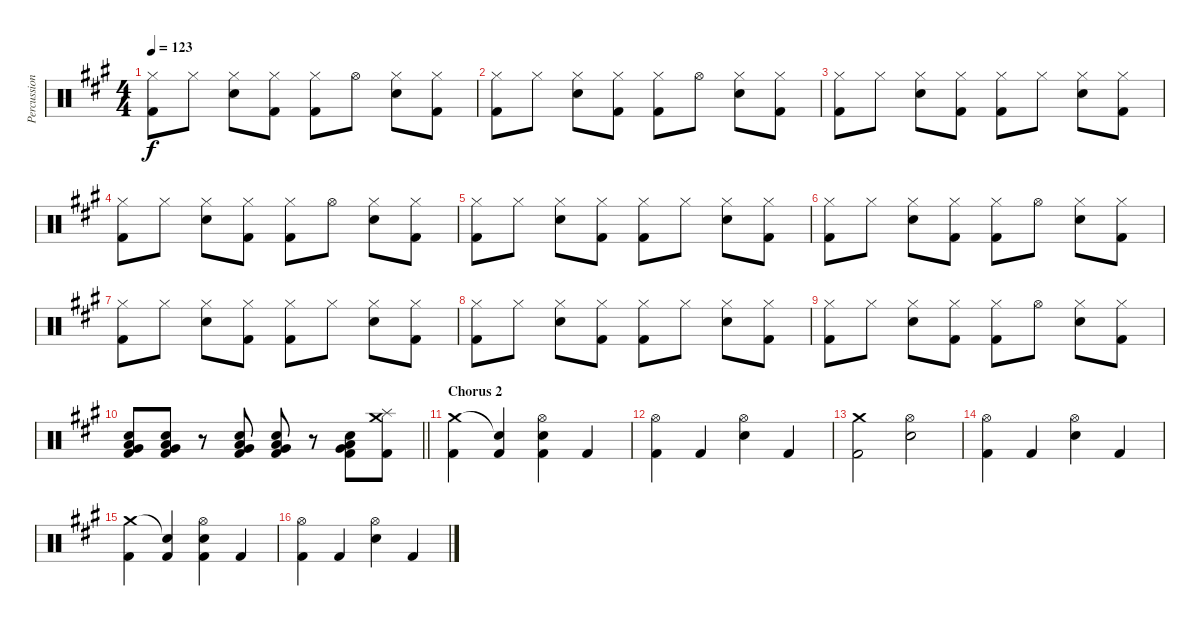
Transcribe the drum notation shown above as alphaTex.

\track ("Percussion" "Percussion") {instrument percussion}
\staff {score}
\articulation defaults
\ts (4 4)
\tempo 123
\clef neutral
\ks a
("Hi-Hat (closed)" "Kick (hit) 2").8{dy f} "Hi-Hat (closed)".8 ("Hi-Hat (closed)" "Electric Snare (hit)").8 ("Hi-Hat (closed)" "Kick (hit) 2").8 ("Hi-Hat (closed)" "Kick (hit) 2").8 "Hi-Hat (open)".8 ("Hi-Hat (closed)" "Electric Snare (hit)").8 ("Hi-Hat (closed)" "Kick (hit) 2").8 |
("Hi-Hat (closed)" "Kick (hit) 2").8 "Hi-Hat (closed)".8 ("Hi-Hat (closed)" "Electric Snare (hit)").8 ("Hi-Hat (closed)" "Kick (hit) 2").8 ("Hi-Hat (closed)" "Kick (hit) 2").8 "Hi-Hat (open)".8 ("Hi-Hat (closed)" "Electric Snare (hit)").8 ("Hi-Hat (closed)" "Kick (hit) 2").8 |
("Hi-Hat (closed)" "Kick (hit) 2").8 "Hi-Hat (closed)".8 ("Hi-Hat (closed)" "Electric Snare (hit)").8 ("Hi-Hat (closed)" "Kick (hit) 2").8 ("Hi-Hat (closed)" "Kick (hit) 2").8 "Hi-Hat (closed)".8 ("Hi-Hat (closed)" "Electric Snare (hit)").8 ("Hi-Hat (closed)" "Kick (hit) 2").8 |
("Hi-Hat (closed)" "Kick (hit) 2").8 "Hi-Hat (closed)".8 ("Hi-Hat (closed)" "Electric Snare (hit)").8 ("Hi-Hat (closed)" "Kick (hit) 2").8 ("Hi-Hat (closed)" "Kick (hit) 2").8 "Hi-Hat (open)".8 ("Hi-Hat (closed)" "Electric Snare (hit)").8 ("Hi-Hat (closed)" "Kick (hit) 2").8 |
("Hi-Hat (closed)" "Kick (hit) 2").8 "Hi-Hat (closed)".8 ("Hi-Hat (closed)" "Electric Snare (hit)").8 ("Hi-Hat (closed)" "Kick (hit) 2").8 ("Hi-Hat (closed)" "Kick (hit) 2").8 "Hi-Hat (closed)".8 ("Hi-Hat (closed)" "Electric Snare (hit)").8 ("Hi-Hat (closed)" "Kick (hit) 2").8 |
("Hi-Hat (closed)" "Kick (hit) 2").8 "Hi-Hat (closed)".8 ("Hi-Hat (closed)" "Electric Snare (hit)").8 ("Hi-Hat (closed)" "Kick (hit) 2").8 ("Hi-Hat (closed)" "Kick (hit) 2").8 "Hi-Hat (open)".8 ("Hi-Hat (closed)" "Electric Snare (hit)").8 ("Hi-Hat (closed)" "Kick (hit) 2").8 |
("Hi-Hat (closed)" "Kick (hit) 2").8 "Hi-Hat (closed)".8 ("Hi-Hat (closed)" "Electric Snare (hit)").8 ("Hi-Hat (closed)" "Kick (hit) 2").8 ("Hi-Hat (closed)" "Kick (hit) 2").8 "Hi-Hat (closed)".8 ("Hi-Hat (closed)" "Electric Snare (hit)").8 ("Hi-Hat (closed)" "Kick (hit) 2").8 |
("Hi-Hat (closed)" "Kick (hit) 2").8 "Hi-Hat (closed)".8 ("Hi-Hat (closed)" "Electric Snare (hit)").8 ("Hi-Hat (closed)" "Kick (hit) 2").8 ("Hi-Hat (closed)" "Kick (hit) 2").8 "Hi-Hat (closed)".8 ("Hi-Hat (closed)" "Electric Snare (hit)").8 ("Hi-Hat (closed)" "Kick (hit) 2").8 |
("Hi-Hat (closed)" "Kick (hit) 2").8 "Hi-Hat (closed)".8 ("Hi-Hat (closed)" "Electric Snare (hit)").8 ("Hi-Hat (closed)" "Kick (hit) 2").8 ("Hi-Hat (closed)" "Kick (hit) 2").8 "Hi-Hat (open)".8 ("Hi-Hat (closed)" "Electric Snare (hit)").8 ("Hi-Hat (closed)" "Kick (hit) 2").8 |
\barLineRight lightlight
("Electric Snare (hit)" "Low Floor Tom (hit)" "Very Low Tom (hit)" "Kick (hit) 2").8 ("Electric Snare (hit)" "Low Floor Tom (hit)" "Very Low Tom (hit)" "Kick (hit) 2").8 r.8 ("Electric Snare (hit)" "Low Floor Tom (hit)" "Very Low Tom (hit)" "Kick (hit) 2").8 ("Electric Snare (hit)" "Low Floor Tom (hit)" "Very Low Tom (hit)" "Kick (hit) 2").8 r.8 ("Electric Snare (hit)" "Low Floor Tom (hit)" "Very Low Tom (hit)" "Kick (hit) 2").8 ("Splash (hit)" "Crash medium (hit)" "Kick (hit) 2").8 |
\section ("" "Chorus 2")
("Crash medium (hit)" "Kick (hit) 2").4 ("Snare (hit)"{t} "Kick (hit) 2").4 ("Hi-Hat (open)" "Electric Snare (hit)" "Kick (hit) 2").4 "Kick (hit) 2".4 |
("Hi-Hat (open)" "Kick (hit) 2").4 "Kick (hit) 2".4 ("Hi-Hat (open)" "Electric Snare (hit)").4 "Kick (hit) 2".4 |
("Crash medium (hit)" "Kick (hit) 2").2 ("Hi-Hat (open)" "Electric Snare (hit)").2 |
("Hi-Hat (open)" "Kick (hit) 2").4 "Kick (hit) 2".4 ("Hi-Hat (open)" "Electric Snare (hit)").4 "Kick (hit) 2".4 |
("Crash medium (hit)" "Kick (hit) 2").4 ("Snare (hit)"{t} "Kick (hit) 2").4 ("Hi-Hat (open)" "Electric Snare (hit)" "Kick (hit) 2").4 "Kick (hit) 2".4 |
("Hi-Hat (open)" "Kick (hit) 2").4 "Kick (hit) 2".4 ("Hi-Hat (open)" "Electric Snare (hit)").4 "Kick (hit) 2".4
